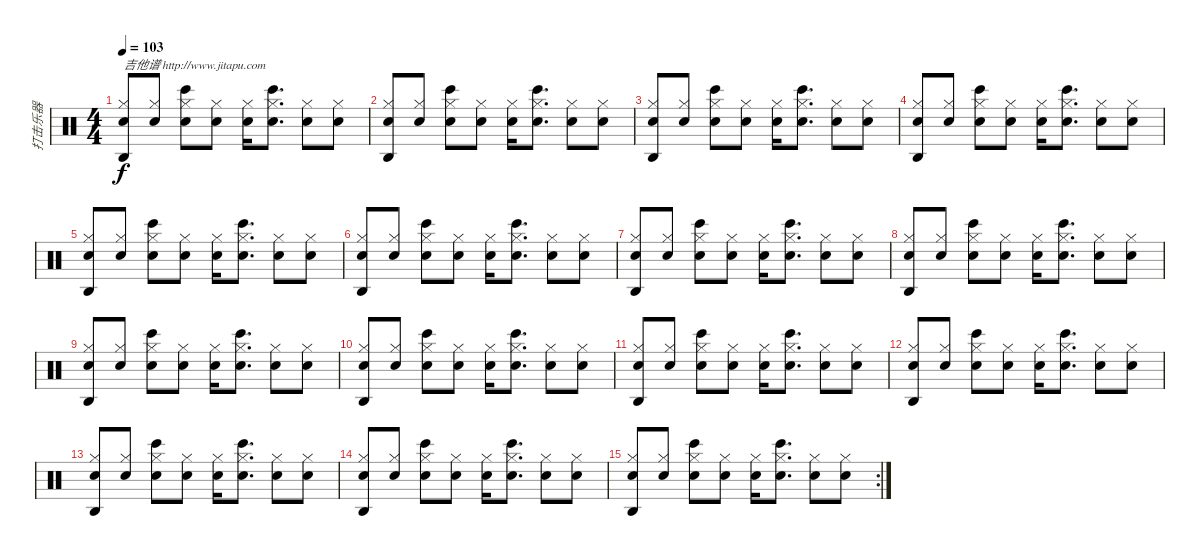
\track ("打击乐器" "打击乐器") {instrument percussion}
\staff {score}
\articulation defaults
\ts (4 4)
\tempo 103
\clef neutral
\ks c
("Hi-Hat (closed)" "Metronome (bell)" "Agogo high (hit)").8{txt "吉他谱 http://www.jitapu.com" dy f} ("Hi-Hat (closed)" "Metronome (bell)").8 ("Hi-Hat (closed)" "Metronome (bell)" "Bongo High (hit)").8 ("Hi-Hat (closed)" "Metronome (bell)").8 ("Hi-Hat (closed)" "Metronome (bell)").16 ("Hi-Hat (closed)" "Metronome (bell)" "Bongo High (hit)").8{d} ("Hi-Hat (closed)" "Metronome (bell)").8 ("Hi-Hat (closed)" "Metronome (bell)").8 |
("Hi-Hat (closed)" "Metronome (bell)" "Agogo high (hit)").8 ("Hi-Hat (closed)" "Metronome (bell)").8 ("Hi-Hat (closed)" "Metronome (bell)" "Bongo High (hit)").8 ("Hi-Hat (closed)" "Metronome (bell)").8 ("Hi-Hat (closed)" "Metronome (bell)").16 ("Hi-Hat (closed)" "Metronome (bell)" "Bongo High (hit)").8{d} ("Hi-Hat (closed)" "Metronome (bell)").8 ("Hi-Hat (closed)" "Metronome (bell)").8 |
("Hi-Hat (closed)" "Metronome (bell)" "Agogo high (hit)").8 ("Hi-Hat (closed)" "Metronome (bell)").8 ("Hi-Hat (closed)" "Metronome (bell)" "Bongo High (hit)").8 ("Hi-Hat (closed)" "Metronome (bell)").8 ("Hi-Hat (closed)" "Metronome (bell)").16 ("Hi-Hat (closed)" "Metronome (bell)" "Bongo High (hit)").8{d} ("Hi-Hat (closed)" "Metronome (bell)").8 ("Hi-Hat (closed)" "Metronome (bell)").8 |
("Hi-Hat (closed)" "Metronome (bell)" "Agogo high (hit)").8 ("Hi-Hat (closed)" "Metronome (bell)").8 ("Hi-Hat (closed)" "Metronome (bell)" "Bongo High (hit)").8 ("Hi-Hat (closed)" "Metronome (bell)").8 ("Hi-Hat (closed)" "Metronome (bell)").16 ("Hi-Hat (closed)" "Metronome (bell)" "Bongo High (hit)").8{d} ("Hi-Hat (closed)" "Metronome (bell)").8 ("Hi-Hat (closed)" "Metronome (bell)").8 |
("Hi-Hat (closed)" "Metronome (bell)" "Agogo high (hit)").8 ("Hi-Hat (closed)" "Metronome (bell)").8 ("Hi-Hat (closed)" "Metronome (bell)" "Bongo High (hit)").8 ("Hi-Hat (closed)" "Metronome (bell)").8 ("Hi-Hat (closed)" "Metronome (bell)").16 ("Hi-Hat (closed)" "Metronome (bell)" "Bongo High (hit)").8{d} ("Hi-Hat (closed)" "Metronome (bell)").8 ("Hi-Hat (closed)" "Metronome (bell)").8 |
("Hi-Hat (closed)" "Metronome (bell)" "Agogo high (hit)").8 ("Hi-Hat (closed)" "Metronome (bell)").8 ("Hi-Hat (closed)" "Metronome (bell)" "Bongo High (hit)").8 ("Hi-Hat (closed)" "Metronome (bell)").8 ("Hi-Hat (closed)" "Metronome (bell)").16 ("Hi-Hat (closed)" "Metronome (bell)" "Bongo High (hit)").8{d} ("Hi-Hat (closed)" "Metronome (bell)").8 ("Hi-Hat (closed)" "Metronome (bell)").8 |
("Hi-Hat (closed)" "Metronome (bell)" "Agogo high (hit)").8 ("Hi-Hat (closed)" "Metronome (bell)").8 ("Hi-Hat (closed)" "Metronome (bell)" "Bongo High (hit)").8 ("Hi-Hat (closed)" "Metronome (bell)").8 ("Hi-Hat (closed)" "Metronome (bell)").16 ("Hi-Hat (closed)" "Metronome (bell)" "Bongo High (hit)").8{d} ("Hi-Hat (closed)" "Metronome (bell)").8 ("Hi-Hat (closed)" "Metronome (bell)").8 |
("Hi-Hat (closed)" "Metronome (bell)" "Agogo high (hit)").8 ("Hi-Hat (closed)" "Metronome (bell)").8 ("Hi-Hat (closed)" "Metronome (bell)" "Bongo High (hit)").8 ("Hi-Hat (closed)" "Metronome (bell)").8 ("Hi-Hat (closed)" "Metronome (bell)").16 ("Hi-Hat (closed)" "Metronome (bell)" "Bongo High (hit)").8{d} ("Hi-Hat (closed)" "Metronome (bell)").8 ("Hi-Hat (closed)" "Metronome (bell)").8 |
("Hi-Hat (closed)" "Metronome (bell)" "Agogo high (hit)").8 ("Hi-Hat (closed)" "Metronome (bell)").8 ("Hi-Hat (closed)" "Metronome (bell)" "Bongo High (hit)").8 ("Hi-Hat (closed)" "Metronome (bell)").8 ("Hi-Hat (closed)" "Metronome (bell)").16 ("Hi-Hat (closed)" "Metronome (bell)" "Bongo High (hit)").8{d} ("Hi-Hat (closed)" "Metronome (bell)").8 ("Hi-Hat (closed)" "Metronome (bell)").8 |
("Hi-Hat (closed)" "Metronome (bell)" "Agogo high (hit)").8 ("Hi-Hat (closed)" "Metronome (bell)").8 ("Hi-Hat (closed)" "Metronome (bell)" "Bongo High (hit)").8 ("Hi-Hat (closed)" "Metronome (bell)").8 ("Hi-Hat (closed)" "Metronome (bell)").16 ("Hi-Hat (closed)" "Metronome (bell)" "Bongo High (hit)").8{d} ("Hi-Hat (closed)" "Metronome (bell)").8 ("Hi-Hat (closed)" "Metronome (bell)").8 |
("Hi-Hat (closed)" "Metronome (bell)" "Agogo high (hit)").8 ("Hi-Hat (closed)" "Metronome (bell)").8 ("Hi-Hat (closed)" "Metronome (bell)" "Bongo High (hit)").8 ("Hi-Hat (closed)" "Metronome (bell)").8 ("Hi-Hat (closed)" "Metronome (bell)").16 ("Hi-Hat (closed)" "Metronome (bell)" "Bongo High (hit)").8{d} ("Hi-Hat (closed)" "Metronome (bell)").8 ("Hi-Hat (closed)" "Metronome (bell)").8 |
("Hi-Hat (closed)" "Metronome (bell)" "Agogo high (hit)").8 ("Hi-Hat (closed)" "Metronome (bell)").8 ("Hi-Hat (closed)" "Metronome (bell)" "Bongo High (hit)").8 ("Hi-Hat (closed)" "Metronome (bell)").8 ("Hi-Hat (closed)" "Metronome (bell)").16 ("Hi-Hat (closed)" "Metronome (bell)" "Bongo High (hit)").8{d} ("Hi-Hat (closed)" "Metronome (bell)").8 ("Hi-Hat (closed)" "Metronome (bell)").8 |
("Hi-Hat (closed)" "Metronome (bell)" "Agogo high (hit)").8 ("Hi-Hat (closed)" "Metronome (bell)").8 ("Hi-Hat (closed)" "Metronome (bell)" "Bongo High (hit)").8 ("Hi-Hat (closed)" "Metronome (bell)").8 ("Hi-Hat (closed)" "Metronome (bell)").16 ("Hi-Hat (closed)" "Metronome (bell)" "Bongo High (hit)").8{d} ("Hi-Hat (closed)" "Metronome (bell)").8 ("Hi-Hat (closed)" "Metronome (bell)").8 |
("Hi-Hat (closed)" "Metronome (bell)" "Agogo high (hit)").8 ("Hi-Hat (closed)" "Metronome (bell)").8 ("Hi-Hat (closed)" "Metronome (bell)" "Bongo High (hit)").8 ("Hi-Hat (closed)" "Metronome (bell)").8 ("Hi-Hat (closed)" "Metronome (bell)").16 ("Hi-Hat (closed)" "Metronome (bell)" "Bongo High (hit)").8{d} ("Hi-Hat (closed)" "Metronome (bell)").8 ("Hi-Hat (closed)" "Metronome (bell)").8 |
\rc 2
("Hi-Hat (closed)" "Metronome (bell)" "Agogo high (hit)").8 ("Hi-Hat (closed)" "Metronome (bell)").8 ("Hi-Hat (closed)" "Metronome (bell)" "Bongo High (hit)").8 ("Hi-Hat (closed)" "Metronome (bell)").8 ("Hi-Hat (closed)" "Metronome (bell)").16 ("Hi-Hat (closed)" "Metronome (bell)" "Bongo High (hit)").8{d} ("Hi-Hat (closed)" "Metronome (bell)").8 ("Hi-Hat (closed)" "Metronome (bell)").8
